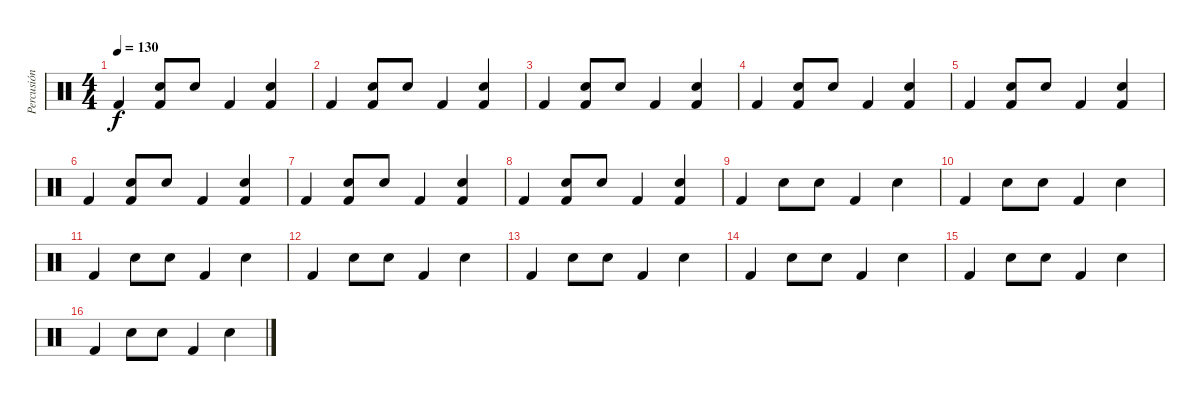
\track ("Percusión" "Percusión") {instrument percussion}
\staff {score}
\articulation defaults
\ts (4 4)
\tempo 130
\clef neutral
\ks c "Kick (hit) 2".4{dy f}
("Snare (hit) 2" "Kick (hit) 2").8 "Snare (hit) 2".8 "Kick (hit) 2".4 ("Snare (hit) 2" "Kick (hit) 2").4 |
"Kick (hit) 2".4 ("Snare (hit) 2" "Kick (hit) 2").8 "Snare (hit) 2".8 "Kick (hit) 2".4 ("Snare (hit) 2" "Kick (hit) 2").4 |
"Kick (hit) 2".4 ("Snare (hit) 2" "Kick (hit) 2").8 "Snare (hit) 2".8 "Kick (hit) 2".4 ("Snare (hit) 2" "Kick (hit) 2").4 |
"Kick (hit) 2".4 ("Snare (hit) 2" "Kick (hit) 2").8 "Snare (hit) 2".8 "Kick (hit) 2".4 ("Snare (hit) 2" "Kick (hit) 2").4 |
"Kick (hit) 2".4 ("Snare (hit) 2" "Kick (hit) 2").8 "Snare (hit) 2".8 "Kick (hit) 2".4 ("Snare (hit) 2" "Kick (hit) 2").4 |
"Kick (hit) 2".4 ("Snare (hit) 2" "Kick (hit) 2").8 "Snare (hit) 2".8 "Kick (hit) 2".4 ("Snare (hit) 2" "Kick (hit) 2").4 |
"Kick (hit) 2".4 ("Snare (hit) 2" "Kick (hit) 2").8 "Snare (hit) 2".8 "Kick (hit) 2".4 ("Snare (hit) 2" "Kick (hit) 2").4 |
"Kick (hit) 2".4 ("Snare (hit) 2" "Kick (hit) 2").8 "Snare (hit) 2".8 "Kick (hit) 2".4 ("Snare (hit) 2" "Kick (hit) 2").4 |
"Kick (hit) 2".4 "Snare (hit) 2".8 "Electric Snare (hit)".8 "Kick (hit) 2".4 "Snare (hit) 2".4 |
"Kick (hit) 2".4 "Snare (hit) 2".8 "Electric Snare (hit)".8 "Kick (hit) 2".4 "Snare (hit) 2".4 |
"Kick (hit) 2".4 "Snare (hit) 2".8 "Electric Snare (hit)".8 "Kick (hit) 2".4 "Snare (hit) 2".4 |
"Kick (hit) 2".4 "Snare (hit) 2".8 "Electric Snare (hit)".8 "Kick (hit) 2".4 "Snare (hit) 2".4 |
"Kick (hit) 2".4 "Snare (hit) 2".8 "Electric Snare (hit)".8 "Kick (hit) 2".4 "Snare (hit) 2".4 |
"Kick (hit) 2".4 "Snare (hit) 2".8 "Electric Snare (hit)".8 "Kick (hit) 2".4 "Snare (hit) 2".4 |
"Kick (hit) 2".4 "Snare (hit) 2".8 "Electric Snare (hit)".8 "Kick (hit) 2".4 "Snare (hit) 2".4 |
"Kick (hit) 2".4 "Snare (hit) 2".8 "Electric Snare (hit)".8 "Kick (hit) 2".4 "Snare (hit) 2".4
